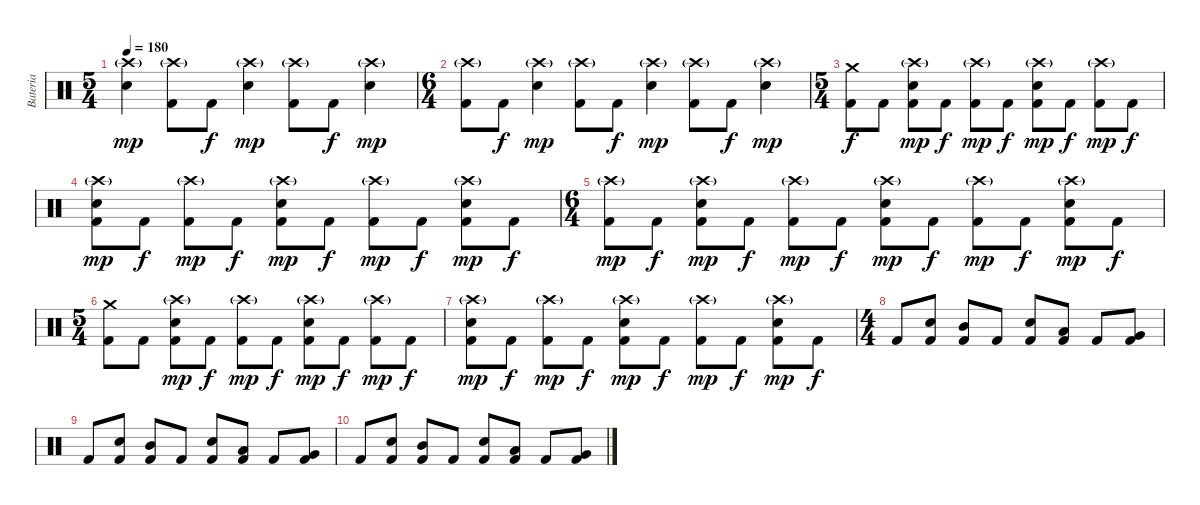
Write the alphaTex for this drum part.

\track ("Bateria" "Bateria") {instrument percussion}
\staff {score}
\articulation defaults
\ts (5 4)
\tempo 180
\clef neutral
\ks c
("Crash high (hit)"{g} "Electric Snare (hit)").4{dy mp} ("Crash high (hit)"{g} "Kick (hit) 2").8 "Kick (hit) 2".8{dy f} ("Crash high (hit)"{g} "Electric Snare (hit)").4{dy mp} ("Crash high (hit)"{g} "Kick (hit) 2").8 "Kick (hit) 2".8{dy f} ("Crash high (hit)"{g} "Electric Snare (hit)").4{dy mp} |
\ts (6 4)
("Crash high (hit)"{g} "Kick (hit) 2").8 "Kick (hit) 2".8{dy f} ("Crash high (hit)"{g} "Electric Snare (hit)").4{dy mp} ("Crash high (hit)"{g} "Kick (hit) 2").8 "Kick (hit) 2".8{dy f} ("Crash high (hit)"{g} "Electric Snare (hit)").4{dy mp} ("Crash high (hit)"{g} "Kick (hit) 2").8 "Kick (hit) 2".8{dy f} ("Crash high (hit)"{g} "Electric Snare (hit)").4{dy mp} |
\ts (5 4)
("Crash medium (hit)" "Kick (hit) 2").8{dy f} "Kick (hit) 2".8 ("Crash high (hit)"{g} "Electric Snare (hit)" "Kick (hit) 2").8{dy mp} "Kick (hit) 2".8{dy f} ("Crash high (hit)"{g} "Kick (hit) 2").8{dy mp} "Kick (hit) 2".8{dy f} ("Crash high (hit)"{g} "Electric Snare (hit)" "Kick (hit) 2").8{dy mp} "Kick (hit) 2".8{dy f} ("Crash high (hit)"{g} "Kick (hit) 2").8{dy mp} "Kick (hit) 2".8{dy f} |
("Crash high (hit)"{g} "Electric Snare (hit)" "Kick (hit) 2").8{dy mp} "Kick (hit) 2".8{dy f} ("Crash high (hit)"{g} "Kick (hit) 2").8{dy mp} "Kick (hit) 2".8{dy f} ("Crash high (hit)"{g} "Electric Snare (hit)" "Kick (hit) 2").8{dy mp} "Kick (hit) 2".8{dy f} ("Crash high (hit)"{g} "Kick (hit) 2").8{dy mp} "Kick (hit) 2".8{dy f} ("Crash high (hit)"{g} "Electric Snare (hit)" "Kick (hit) 2").8{dy mp} "Kick (hit) 2".8{dy f} |
\ts (6 4)
("Crash high (hit)"{g} "Kick (hit) 2").8{dy mp} "Kick (hit) 2".8{dy f} ("Crash high (hit)"{g} "Electric Snare (hit)" "Kick (hit) 2").8{dy mp} "Kick (hit) 2".8{dy f} ("Crash high (hit)"{g} "Kick (hit) 2").8{dy mp} "Kick (hit) 2".8{dy f} ("Crash high (hit)"{g} "Electric Snare (hit)" "Kick (hit) 2").8{dy mp} "Kick (hit) 2".8{dy f} ("Crash high (hit)"{g} "Kick (hit) 2").8{dy mp} "Kick (hit) 2".8{dy f} ("Crash high (hit)"{g} "Electric Snare (hit)" "Kick (hit) 2").8{dy mp} "Kick (hit) 2".8{dy f} |
\ts (5 4)
("Crash medium (hit)" "Kick (hit) 2").8 "Kick (hit) 2".8 ("Crash high (hit)"{g} "Electric Snare (hit)" "Kick (hit) 2").8{dy mp} "Kick (hit) 2".8{dy f} ("Crash high (hit)"{g} "Kick (hit) 2").8{dy mp} "Kick (hit) 2".8{dy f} ("Crash high (hit)"{g} "Electric Snare (hit)" "Kick (hit) 2").8{dy mp} "Kick (hit) 2".8{dy f} ("Crash high (hit)"{g} "Kick (hit) 2").8{dy mp} "Kick (hit) 2".8{dy f} |
("Crash high (hit)"{g} "Electric Snare (hit)" "Kick (hit) 2").8{dy mp} "Kick (hit) 2".8{dy f} ("Crash high (hit)"{g} "Kick (hit) 2").8{dy mp} "Kick (hit) 2".8{dy f} ("Crash high (hit)"{g} "Electric Snare (hit)" "Kick (hit) 2").8{dy mp} "Kick (hit) 2".8{dy f} ("Crash high (hit)"{g} "Kick (hit) 2").8{dy mp} "Kick (hit) 2".8{dy f} ("Crash high (hit)"{g} "Electric Snare (hit)" "Kick (hit) 2").8{dy mp} "Kick (hit) 2".8{dy f} |
\ts (4 4)
"Kick (hit) 2".8 ("Electric Snare (hit)" "Kick (hit) 2").8 ("Mid Tom (hit)" "Kick (hit) 2").8 "Kick (hit) 2".8 ("Electric Snare (hit)" "Kick (hit) 2").8 ("Low Tom (hit)" "Kick (hit) 2").8 "Kick (hit) 2".8 ("Very Low Tom (hit)" "Kick (hit) 2").8 |
"Kick (hit) 2".8 ("Electric Snare (hit)" "Kick (hit) 2").8 ("Mid Tom (hit)" "Kick (hit) 2").8 "Kick (hit) 2".8 ("Electric Snare (hit)" "Kick (hit) 2").8 ("Low Tom (hit)" "Kick (hit) 2").8 "Kick (hit) 2".8 ("Very Low Tom (hit)" "Kick (hit) 2").8 |
"Kick (hit) 2".8 ("Electric Snare (hit)" "Kick (hit) 2").8 ("Mid Tom (hit)" "Kick (hit) 2").8 "Kick (hit) 2".8 ("Electric Snare (hit)" "Kick (hit) 2").8 ("Low Tom (hit)" "Kick (hit) 2").8 "Kick (hit) 2".8 ("Very Low Tom (hit)" "Kick (hit) 2").8
